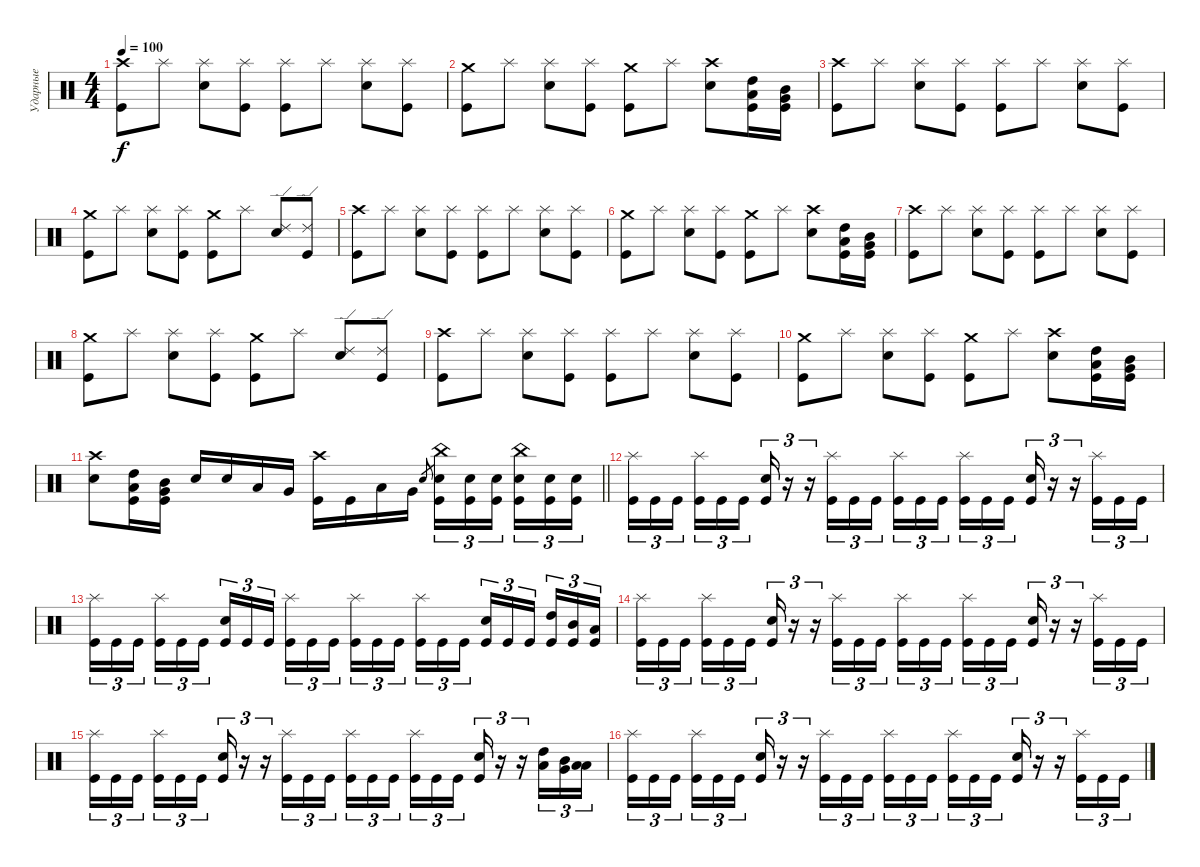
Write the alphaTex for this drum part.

\track ("Ударные" "Ударные") {instrument percussion}
\staff {score}
\articulation defaults
\ts (4 4)
\tempo 100
\clef neutral
\ks c
("Kick (hit)" "Crash high (hit)").8{dy f} "Splash (hit)".8 ("Electric Snare (hit)" "Splash (hit)").8 ("Kick (hit)" "Splash (hit)").8 ("Kick (hit)" "Splash (hit)").8 "Splash (hit)".8 ("Electric Snare (hit)" "Splash (hit)").8 ("Kick (hit)" "Splash (hit)").8 |
("Kick (hit)" "Crash medium (hit)").8 "Splash (hit)".8 ("Electric Snare (hit)" "Splash (hit)").8 ("Kick (hit)" "Splash (hit)").8 ("Kick (hit)" "Crash medium (hit)").8 "Splash (hit)".8 ("Electric Snare (hit)" "Crash high (hit)").8 ("Kick (hit)" "High Tom (hit)" "Low Tom (hit)").16 ("Kick (hit)" "Mid Tom (hit)" "Very Low Tom (hit)").16 |
("Kick (hit)" "Crash high (hit)").8 "Splash (hit)".8 ("Electric Snare (hit)" "Splash (hit)").8 ("Kick (hit)" "Splash (hit)").8 ("Kick (hit)" "Splash (hit)").8 "Splash (hit)".8 ("Electric Snare (hit)" "Splash (hit)").8 ("Kick (hit)" "Splash (hit)").8 |
("Kick (hit)" "Crash medium (hit)").8 "Splash (hit)".8 ("Electric Snare (hit)" "Splash (hit)").8 ("Kick (hit)" "Splash (hit)").8 ("Kick (hit)" "Crash medium (hit)").8 "Splash (hit)".8 ("Electric Snare (hit)" "Ride (edge) 2").8 ("Kick (hit)" "Ride (edge) 2").8 |
("Kick (hit)" "Crash high (hit)").8 "Splash (hit)".8 ("Electric Snare (hit)" "Splash (hit)").8 ("Kick (hit)" "Splash (hit)").8 ("Kick (hit)" "Splash (hit)").8 "Splash (hit)".8 ("Electric Snare (hit)" "Splash (hit)").8 ("Kick (hit)" "Splash (hit)").8 |
("Kick (hit)" "Crash medium (hit)").8 "Splash (hit)".8 ("Electric Snare (hit)" "Splash (hit)").8 ("Kick (hit)" "Splash (hit)").8 ("Kick (hit)" "Crash medium (hit)").8 "Splash (hit)".8 ("Electric Snare (hit)" "Crash high (hit)").8 ("Kick (hit)" "High Tom (hit)" "Low Tom (hit)").16 ("Kick (hit)" "Mid Tom (hit)" "Very Low Tom (hit)").16 |
("Kick (hit)" "Crash high (hit)").8 "Splash (hit)".8 ("Electric Snare (hit)" "Splash (hit)").8 ("Kick (hit)" "Splash (hit)").8 ("Kick (hit)" "Splash (hit)").8 "Splash (hit)".8 ("Electric Snare (hit)" "Splash (hit)").8 ("Kick (hit)" "Splash (hit)").8 |
("Kick (hit)" "Crash medium (hit)").8 "Splash (hit)".8 ("Electric Snare (hit)" "Splash (hit)").8 ("Kick (hit)" "Splash (hit)").8 ("Kick (hit)" "Crash medium (hit)").8 "Splash (hit)".8 ("Electric Snare (hit)" "Ride (edge) 2").8 ("Kick (hit)" "Ride (edge) 2").8 |
("Kick (hit)" "Crash high (hit)").8 "Splash (hit)".8 ("Electric Snare (hit)" "Splash (hit)").8 ("Kick (hit)" "Splash (hit)").8 ("Kick (hit)" "Splash (hit)").8 "Splash (hit)".8 ("Electric Snare (hit)" "Splash (hit)").8 ("Kick (hit)" "Splash (hit)").8 |
("Kick (hit)" "Crash medium (hit)").8 "Splash (hit)".8 ("Electric Snare (hit)" "Splash (hit)").8 ("Kick (hit)" "Splash (hit)").8 ("Kick (hit)" "Crash medium (hit)").8 "Splash (hit)".8 ("Electric Snare (hit)" "Crash high (hit)").8 ("Kick (hit)" "High Tom (hit)" "Low Tom (hit)").16 ("Kick (hit)" "Mid Tom (hit)" "Very Low Tom (hit)").16 |
\barLineRight lightlight
("Electric Snare (hit)" "Crash high (hit)").8 ("Kick (hit)" "High Tom (hit)" "Low Tom (hit)").16 ("Kick (hit)" "Mid Tom (hit)" "Very Low Tom (hit)").16 "Electric Snare (hit)".16 "Electric Snare (hit)".16 "Low Tom (hit)".16 "Very Low Tom (hit)".16 ("Kick (hit)" "Crash high (hit)").16 "Kick (hit)".16 "Low Tom (hit)".16 "Very Low Tom (hit)".16 "Electric Snare (hit)".8{gr} ("Electric Snare (hit)" "Kick (hit)" "China (hit)").16{tu (3 2)} ("Electric Snare (hit)" "Kick (hit)").16{tu (3 2)} ("Electric Snare (hit)" "Kick (hit)").16{tu (3 2) beam splitsecondary} ("Electric Snare (hit)" "Kick (hit)" "China (hit)").16{tu (3 2)} ("Electric Snare (hit)" "Kick (hit)").16{tu (3 2)} ("Electric Snare (hit)" "Kick (hit)").16{tu (3 2)} |
\section ("" " ")
("Splash (hit)" "Kick (hit)").16{tu (3 2)} "Kick (hit)".16{tu (3 2)} "Kick (hit)".16{tu (3 2) beam splitsecondary} ("Splash (hit)" "Kick (hit)").16{tu (3 2)} "Kick (hit)".16{tu (3 2)} "Kick (hit)".16{tu (3 2)} ("Electric Snare (hit)" "Kick (hit)").16{tu (3 2)} r.16{tu (3 2)} r.16{tu (3 2)} ("Splash (hit)" "Kick (hit)").16{tu (3 2)} "Kick (hit)".16{tu (3 2)} "Kick (hit)".16{tu (3 2)} ("Splash (hit)" "Kick (hit)").16{tu (3 2)} "Kick (hit)".16{tu (3 2)} "Kick (hit)".16{tu (3 2) beam splitsecondary} ("Splash (hit)" "Kick (hit)").16{tu (3 2)} "Kick (hit)".16{tu (3 2)} "Kick (hit)".16{tu (3 2)} ("Electric Snare (hit)" "Kick (hit)").16{tu (3 2)} r.16{tu (3 2)} r.16{tu (3 2)} ("Splash (hit)" "Kick (hit)").16{tu (3 2)} "Kick (hit)".16{tu (3 2)} "Kick (hit)".16{tu (3 2)} |
("Splash (hit)" "Kick (hit)").16{tu (3 2)} "Kick (hit)".16{tu (3 2)} "Kick (hit)".16{tu (3 2) beam splitsecondary} ("Splash (hit)" "Kick (hit)").16{tu (3 2)} "Kick (hit)".16{tu (3 2)} "Kick (hit)".16{tu (3 2)} ("Electric Snare (hit)" "Kick (hit)").16{tu (3 2)} "Kick (hit)".16{tu (3 2)} "Kick (hit)".16{tu (3 2) beam splitsecondary} ("Splash (hit)" "Kick (hit)").16{tu (3 2)} "Kick (hit)".16{tu (3 2)} "Kick (hit)".16{tu (3 2)} ("Splash (hit)" "Kick (hit)").16{tu (3 2)} "Kick (hit)".16{tu (3 2)} "Kick (hit)".16{tu (3 2) beam splitsecondary} ("Splash (hit)" "Kick (hit)").16{tu (3 2)} "Kick (hit)".16{tu (3 2)} "Kick (hit)".16{tu (3 2)} ("Electric Snare (hit)" "Kick (hit)").16{tu (3 2)} "Kick (hit)".16{tu (3 2)} "Kick (hit)".16{tu (3 2) beam splitsecondary} ("High Tom (hit)" "Kick (hit)").16{tu (3 2)} ("Mid Tom (hit)" "Kick (hit)").16{tu (3 2)} ("Low Tom (hit)" "Kick (hit)").16{tu (3 2)} |
("Splash (hit)" "Kick (hit)").16{tu (3 2)} "Kick (hit)".16{tu (3 2)} "Kick (hit)".16{tu (3 2) beam splitsecondary} ("Splash (hit)" "Kick (hit)").16{tu (3 2)} "Kick (hit)".16{tu (3 2)} "Kick (hit)".16{tu (3 2)} ("Electric Snare (hit)" "Kick (hit)").16{tu (3 2)} r.16{tu (3 2)} r.16{tu (3 2)} ("Splash (hit)" "Kick (hit)").16{tu (3 2)} "Kick (hit)".16{tu (3 2)} "Kick (hit)".16{tu (3 2)} ("Splash (hit)" "Kick (hit)").16{tu (3 2)} "Kick (hit)".16{tu (3 2)} "Kick (hit)".16{tu (3 2) beam splitsecondary} ("Splash (hit)" "Kick (hit)").16{tu (3 2)} "Kick (hit)".16{tu (3 2)} "Kick (hit)".16{tu (3 2)} ("Electric Snare (hit)" "Kick (hit)").16{tu (3 2)} r.16{tu (3 2)} r.16{tu (3 2)} ("Splash (hit)" "Kick (hit)").16{tu (3 2)} "Kick (hit)".16{tu (3 2)} "Kick (hit)".16{tu (3 2)} |
("Splash (hit)" "Kick (hit)").16{tu (3 2)} "Kick (hit)".16{tu (3 2)} "Kick (hit)".16{tu (3 2) beam splitsecondary} ("Splash (hit)" "Kick (hit)").16{tu (3 2)} "Kick (hit)".16{tu (3 2)} "Kick (hit)".16{tu (3 2)} ("Electric Snare (hit)" "Kick (hit)").16{tu (3 2)} r.16{tu (3 2)} r.16{tu (3 2)} ("Splash (hit)" "Kick (hit)").16{tu (3 2)} "Kick (hit)".16{tu (3 2)} "Kick (hit)".16{tu (3 2)} ("Splash (hit)" "Kick (hit)").16{tu (3 2)} "Kick (hit)".16{tu (3 2)} "Kick (hit)".16{tu (3 2) beam splitsecondary} ("Splash (hit)" "Kick (hit)").16{tu (3 2)} "Kick (hit)".16{tu (3 2)} "Kick (hit)".16{tu (3 2)} ("Electric Snare (hit)" "Kick (hit)").16{tu (3 2)} r.16{tu (3 2)} r.16{tu (3 2)} ("High Tom (hit)" "Low Tom (hit)").16{tu (3 2)} ("Mid Tom (hit)" "Very Low Tom (hit)").16{tu (3 2)} ("Low Tom (hit)" "Low Floor Tom (hit)").16{tu (3 2)} |
("Splash (hit)" "Kick (hit)").16{tu (3 2)} "Kick (hit)".16{tu (3 2)} "Kick (hit)".16{tu (3 2) beam splitsecondary} ("Splash (hit)" "Kick (hit)").16{tu (3 2)} "Kick (hit)".16{tu (3 2)} "Kick (hit)".16{tu (3 2)} ("Electric Snare (hit)" "Kick (hit)").16{tu (3 2)} r.16{tu (3 2)} r.16{tu (3 2)} ("Splash (hit)" "Kick (hit)").16{tu (3 2)} "Kick (hit)".16{tu (3 2)} "Kick (hit)".16{tu (3 2)} ("Splash (hit)" "Kick (hit)").16{tu (3 2)} "Kick (hit)".16{tu (3 2)} "Kick (hit)".16{tu (3 2) beam splitsecondary} ("Splash (hit)" "Kick (hit)").16{tu (3 2)} "Kick (hit)".16{tu (3 2)} "Kick (hit)".16{tu (3 2)} ("Electric Snare (hit)" "Kick (hit)").16{tu (3 2)} r.16{tu (3 2)} r.16{tu (3 2)} ("Splash (hit)" "Kick (hit)").16{tu (3 2)} "Kick (hit)".16{tu (3 2)} "Kick (hit)".16{tu (3 2)}
